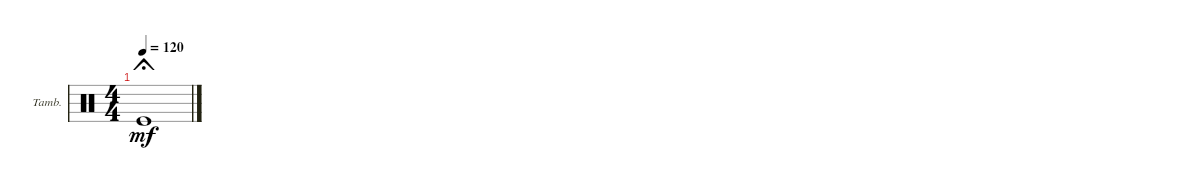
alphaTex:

\defaultSystemsLayout 4
\bracketExtendMode groupsimilarinstruments
\firstSystemTrackNameOrientation horizontal
\otherSystemsTrackNameOrientation horizontal
\track ("Tambourine" "Tamb.") {instrument percussion}
\staff {score}
\articulation defaults
\ts (4 4)
\tempo 120
\clef neutral
\ks c "Kick (hit)".1{dy mf fermata (short 1)}
